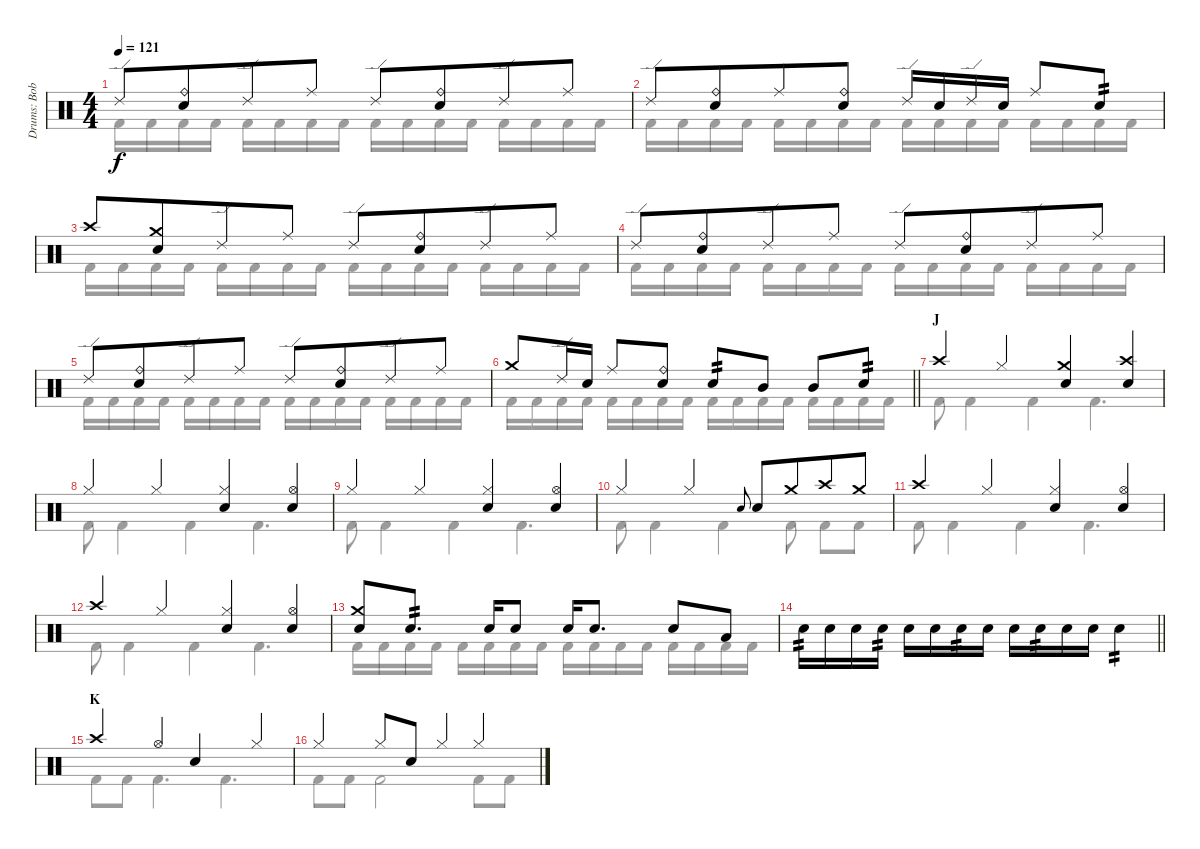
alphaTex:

\track ("Drums: Bobby" "Drums: Bob") {instrument percussion}
\staff {score}
\articulation defaults
\voice
\ts (4 4)
\tempo 121
\clef neutral
\ks c "Ride (edge) 2".8{dy f}
("Ride (bell)" "Snare (hit) 2").8{beam merge} "Ride (edge) 2".8 "Ride (middle)".8 "Ride (edge) 2".8 ("Ride (bell)" "Snare (hit) 2").8{beam merge} "Ride (edge) 2".8 "Ride (middle)".8 |
"Ride (edge) 2".8 ("Ride (bell)" "Snare (hit) 2").8{beam merge} "Ride (middle)".8 ("Ride (bell)" "Snare (hit) 2").8 "Ride (edge) 2".16 "Snare (hit) 2".16 "Ride (edge) 2".16 "Snare (hit) 2".16 "Ride (middle)".8 "Electric Snare (hit)".8{tp 2} |
"Crash high (hit)".8 ("Crash medium (hit)" "Snare (hit) 2").8{beam merge} "Ride (edge) 2".8 "Ride (middle)".8 "Ride (edge) 2".8 ("Ride (bell)" "Snare (hit) 2").8{beam merge} "Ride (edge) 2".8 "Ride (middle)".8 |
"Ride (edge) 2".8 ("Ride (bell)" "Snare (hit) 2").8{beam merge} "Ride (edge) 2".8 "Ride (middle)".8 "Ride (edge) 2".8 ("Ride (bell)" "Snare (hit) 2").8{beam merge} "Ride (edge) 2".8 "Ride (middle)".8 |
"Ride (edge) 2".8 ("Ride (bell)" "Snare (hit) 2").8{beam merge} "Ride (edge) 2".8 "Ride (middle)".8 "Ride (edge) 2".8 ("Ride (bell)" "Snare (hit) 2").8{beam merge} "Ride (edge) 2".8 "Ride (middle)".8 |
\barLineRight lightlight "Crash medium (hit)".8 "Ride (edge) 2".16{beam merge} "Snare (hit) 2".16 "Ride (middle)".8
("Ride (bell)" "Snare (hit) 2").8 "Snare (hit) 2".8{tp 2} "Mid Tom (hit)".8 "Mid Tom (hit)".8 "Electric Snare (hit)".8{tp 2} |
\section ("" "J")
"Crash high (hit)".4 "Hi-Hat (closed)".4 ("Crash medium (hit)" "Snare (hit) 2").4 ("Crash high (hit)" "Snare (hit) 2").4 |
"Hi-Hat (closed)".4 "Hi-Hat (closed)".4 ("Hi-Hat (closed)" "Snare (hit) 2").4 ("Hi-Hat (open)" "Snare (hit) 2").4 |
"Hi-Hat (closed)".4 "Hi-Hat (closed)".4 ("Hi-Hat (closed)" "Snare (hit) 2").4 ("Hi-Hat (open)" "Snare (hit) 2").4 |
"Hi-Hat (closed)".4 "Hi-Hat (closed)".4 "Electric Snare (hit)".8{gr onbeat} "Snare (hit) 2".8{beam merge} "Crash medium (hit)".8{beam merge} "Crash high (hit)".8{beam merge} "Crash medium (hit)".8 |
"Crash high (hit)".4 "Hi-Hat (closed)".4 ("Hi-Hat (closed)" "Snare (hit) 2").4 ("Hi-Hat (open)" "Snare (hit) 2").4 |
"Crash high (hit)".4 "Hi-Hat (closed)".4 ("Hi-Hat (closed)" "Snare (hit) 2").4 ("Hi-Hat (open)" "Snare (hit) 2").4 |
("Crash medium (hit)" "Snare (hit) 2").8 "Snare (hit) 2".8{d tp 2} "Snare (hit) 2".16 "Snare (hit) 2".8 "Snare (hit) 2".16 "Snare (hit) 2".8{d} "Snare (hit) 2".8 "Low Tom (hit)".8 |
\barLineRight lightlight "Snare (hit) 2".16{tp 2} "Snare (hit) 2".16 "Snare (hit) 2".16 "Snare (hit) 2".16{tp 2} "Snare (hit) 2".16 "Snare (hit) 2".16 "Snare (hit) 2".16{tp 2} "Snare (hit) 2".16 "Snare (hit) 2".16 "Snare (hit) 2".16{tp 2} "Snare (hit) 2".16 "Snare (hit) 2".16 "Snare (hit) 2".4{tp 2}
|
\section ("" "K")
"Crash high (hit)".4 "Hi-Hat (open)".4 "Snare (hit) 2".4 "Hi-Hat (closed)".4 |
"Hi-Hat (closed)".4 "Hi-Hat (closed)".8 "Snare (hit) 2".8 "Hi-Hat (closed)".4 "Hi-Hat (closed)".4
\voice
\clef neutral
\ottava regular
\simile none
\ks c "Kick (hit) 2".16{dy f} "Kick (hit) 2".16 "Kick (hit) 2".16 "Kick (hit) 2".16 "Kick (hit) 2".16 "Kick (hit) 2".16 "Kick (hit) 2".16 "Kick (hit) 2".16 "Kick (hit) 2".16 "Kick (hit) 2".16 "Kick (hit) 2".16 "Kick (hit) 2".16 "Kick (hit) 2".16 "Kick (hit) 2".16 "Kick (hit) 2".16 "Kick (hit) 2".16
|
"Kick (hit) 2".16 "Kick (hit) 2".16 "Kick (hit) 2".16 "Kick (hit) 2".16 "Kick (hit) 2".16 "Kick (hit) 2".16 "Kick (hit) 2".16 "Kick (hit) 2".16 "Kick (hit) 2".16 "Kick (hit) 2".16 "Kick (hit) 2".16 "Kick (hit) 2".16 "Kick (hit) 2".16 "Kick (hit) 2".16 "Kick (hit) 2".16 "Kick (hit) 2".16 |
"Kick (hit) 2".16 "Kick (hit) 2".16 "Kick (hit) 2".16 "Kick (hit) 2".16 "Kick (hit) 2".16 "Kick (hit) 2".16 "Kick (hit) 2".16 "Kick (hit) 2".16 "Kick (hit) 2".16 "Kick (hit) 2".16 "Kick (hit) 2".16 "Kick (hit) 2".16 "Kick (hit) 2".16 "Kick (hit) 2".16 "Kick (hit) 2".16 "Kick (hit) 2".16 |
"Kick (hit) 2".16 "Kick (hit) 2".16 "Kick (hit) 2".16 "Kick (hit) 2".16 "Kick (hit) 2".16 "Kick (hit) 2".16 "Kick (hit) 2".16 "Kick (hit) 2".16 "Kick (hit) 2".16 "Kick (hit) 2".16 "Kick (hit) 2".16 "Kick (hit) 2".16 "Kick (hit) 2".16 "Kick (hit) 2".16 "Kick (hit) 2".16 "Kick (hit) 2".16 |
"Kick (hit) 2".16 "Kick (hit) 2".16 "Kick (hit) 2".16 "Kick (hit) 2".16 "Kick (hit) 2".16 "Kick (hit) 2".16 "Kick (hit) 2".16 "Kick (hit) 2".16 "Kick (hit) 2".16 "Kick (hit) 2".16 "Kick (hit) 2".16 "Kick (hit) 2".16 "Kick (hit) 2".16 "Kick (hit) 2".16 "Kick (hit) 2".16 "Kick (hit) 2".16 |
\barLineRight lightlight "Kick (hit) 2".16 "Kick (hit) 2".16 "Kick (hit) 2".16 "Kick (hit) 2".16 "Kick (hit) 2".16 "Kick (hit) 2".16 "Kick (hit) 2".16 "Kick (hit) 2".16 "Kick (hit) 2".16 "Kick (hit) 2".16 "Kick (hit) 2".16 "Kick (hit) 2".16 "Kick (hit) 2".16 "Kick (hit) 2".16 "Kick (hit) 2".16 "Kick (hit) 2".16
|
"Kick (hit) 2".8 "Kick (hit) 2".4 "Kick (hit) 2".4 "Kick (hit) 2".4{d} |
"Kick (hit) 2".8 "Kick (hit) 2".4 "Kick (hit) 2".4 "Kick (hit) 2".4{d} |
"Kick (hit) 2".8 "Kick (hit) 2".4 "Kick (hit) 2".4 "Kick (hit) 2".4{d} |
"Kick (hit) 2".8 "Kick (hit) 2".4 "Kick (hit) 2".4 "Kick (hit) 2".8 "Kick (hit) 2".8 "Kick (hit) 2".8 |
"Kick (hit) 2".8 "Kick (hit) 2".4 "Kick (hit) 2".4 "Kick (hit) 2".4{d} |
"Kick (hit) 2".8 "Kick (hit) 2".4 "Kick (hit) 2".4 "Kick (hit) 2".4{d} |
"Kick (hit) 2".16 "Kick (hit) 2".16 "Kick (hit) 2".16 "Kick (hit) 2".16 "Kick (hit) 2".16 "Kick (hit) 2".16 "Kick (hit) 2".16 "Kick (hit) 2".16 "Kick (hit) 2".16 "Kick (hit) 2".16 "Kick (hit) 2".16 "Kick (hit) 2".16 "Kick (hit) 2".16 "Kick (hit) 2".16 "Kick (hit) 2".16 "Kick (hit) 2".16 |
\barLineRight lightlight
|
"Kick (hit) 2".8 "Kick (hit) 2".8 "Kick (hit) 2".4{d} "Kick (hit) 2".4{d} |
"Kick (hit) 2".8 "Kick (hit) 2".8 "Kick (hit) 2".2 "Kick (hit) 2".8 "Kick (hit) 2".8
